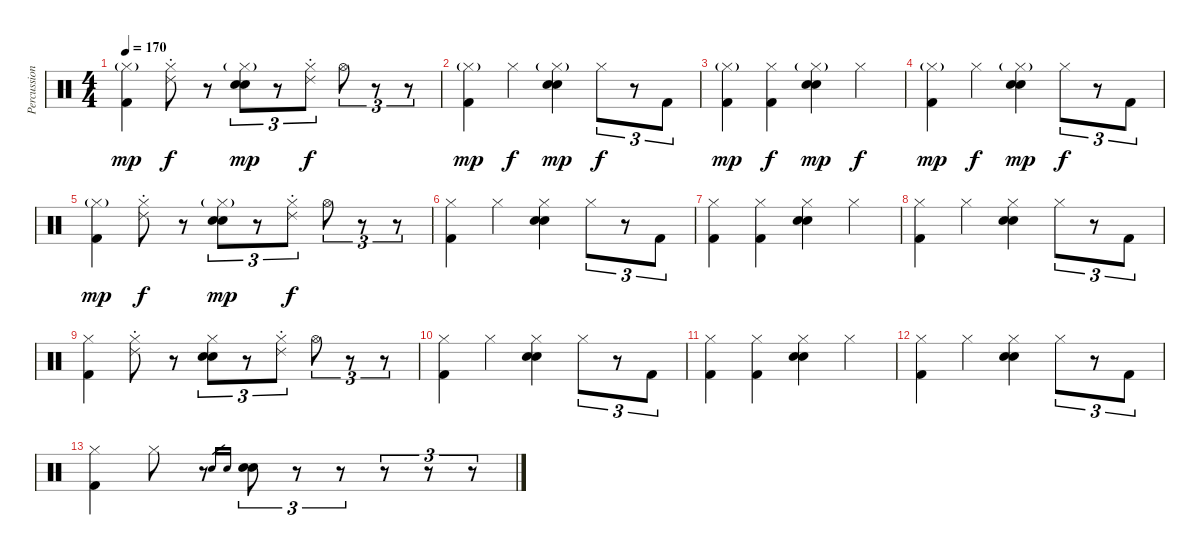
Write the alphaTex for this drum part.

\track ("Percussion" "Percussion") {instrument percussion}
\staff {score}
\articulation defaults
\ts (4 4)
\tempo 170
\clef neutral
\ks c
("Hi-Hat (closed)"{g} "Kick (hit) 2").4{dy mp} ("Hi-Hat (closed)" "Ride (choke) 2").8{dy f} r.8 ("Hi-Hat (closed)"{g} "Hand Clap (hit)" "Electric Snare (hit)").8{tu (3 2) dy mp} r.8{tu (3 2)} ("Hi-Hat (closed)" "Ride (choke) 2").8{tu (3 2) dy f} "Hi-Hat (open)".8{tu (3 2)} r.8{tu (3 2)} r.8{tu (3 2)} |
("Hi-Hat (closed)"{g} "Kick (hit) 2").4{dy mp} "Hi-Hat (closed)".4{dy f} ("Hi-Hat (closed)"{g} "Hand Clap (hit)" "Electric Snare (hit)").4{dy mp} "Hi-Hat (closed)".8{tu (3 2) dy f} r.8{tu (3 2)} "Kick (hit) 2".8{tu (3 2)} |
("Hi-Hat (closed)"{g} "Kick (hit) 2").4{dy mp} ("Hi-Hat (closed)" "Kick (hit) 2").4{dy f} ("Hi-Hat (closed)"{g} "Hand Clap (hit)" "Electric Snare (hit)").4{dy mp} "Hi-Hat (closed)".4{dy f} |
("Hi-Hat (closed)"{g} "Kick (hit) 2").4{dy mp} "Hi-Hat (closed)".4{dy f} ("Hi-Hat (closed)"{g} "Hand Clap (hit)" "Electric Snare (hit)").4{dy mp} "Hi-Hat (closed)".8{tu (3 2) dy f} r.8{tu (3 2)} "Kick (hit) 2".8{tu (3 2)} |
("Hi-Hat (closed)"{g} "Kick (hit) 2").4{dy mp} ("Hi-Hat (closed)" "Ride (choke) 2").8{dy f} r.8 ("Hi-Hat (closed)"{g} "Hand Clap (hit)" "Electric Snare (hit)").8{tu (3 2) dy mp} r.8{tu (3 2)} ("Hi-Hat (closed)" "Ride (choke) 2").8{tu (3 2) dy f} "Hi-Hat (open)".8{tu (3 2)} r.8{tu (3 2)} r.8{tu (3 2)} |
("Hi-Hat (closed)" "Kick (hit) 2").4 "Hi-Hat (closed)".4 ("Hi-Hat (closed)" "Hand Clap (hit)" "Electric Snare (hit)").4 "Hi-Hat (closed)".8{tu (3 2)} r.8{tu (3 2)} "Kick (hit) 2".8{tu (3 2)} |
("Hi-Hat (closed)" "Kick (hit) 2").4 ("Hi-Hat (closed)" "Kick (hit) 2").4 ("Hi-Hat (closed)" "Hand Clap (hit)" "Electric Snare (hit)").4 "Hi-Hat (closed)".4 |
("Hi-Hat (closed)" "Kick (hit) 2").4 "Hi-Hat (closed)".4 ("Hi-Hat (closed)" "Hand Clap (hit)" "Electric Snare (hit)").4 "Hi-Hat (closed)".8{tu (3 2)} r.8{tu (3 2)} "Kick (hit) 2".8{tu (3 2)} |
("Hi-Hat (closed)" "Kick (hit) 2").4 ("Hi-Hat (closed)" "Ride (choke) 2").8 r.8 ("Hi-Hat (closed)" "Hand Clap (hit)" "Electric Snare (hit)").8{tu (3 2)} r.8{tu (3 2)} ("Hi-Hat (closed)" "Ride (choke) 2").8{tu (3 2)} "Hi-Hat (open)".8{tu (3 2)} r.8{tu (3 2)} r.8{tu (3 2)} |
("Hi-Hat (closed)" "Kick (hit) 2").4 "Hi-Hat (closed)".4 ("Hi-Hat (closed)" "Hand Clap (hit)" "Electric Snare (hit)").4 "Hi-Hat (closed)".8{tu (3 2)} r.8{tu (3 2)} "Kick (hit) 2".8{tu (3 2)} |
("Hi-Hat (closed)" "Kick (hit) 2").4 ("Hi-Hat (closed)" "Kick (hit) 2").4 ("Hi-Hat (closed)" "Hand Clap (hit)" "Electric Snare (hit)").4 "Hi-Hat (closed)".4 |
("Hi-Hat (closed)" "Kick (hit) 2").4 "Hi-Hat (closed)".4 ("Hi-Hat (closed)" "Hand Clap (hit)" "Electric Snare (hit)").4 "Hi-Hat (closed)".8{tu (3 2)} r.8{tu (3 2)} "Kick (hit) 2".8{tu (3 2)} |
("Hi-Hat (closed)" "Kick (hit) 2").4 "Hi-Hat (closed)".8 r.8 "Hand Clap (hit)".16{gr} "Electric Snare (hit)".16{gr} ("Hand Clap (hit)" "Electric Snare (hit)").8{tu (3 2)} r.8{tu (3 2)} r.8{tu (3 2)} r.8{tu (3 2)} r.8{tu (3 2)} r.8{tu (3 2)}
